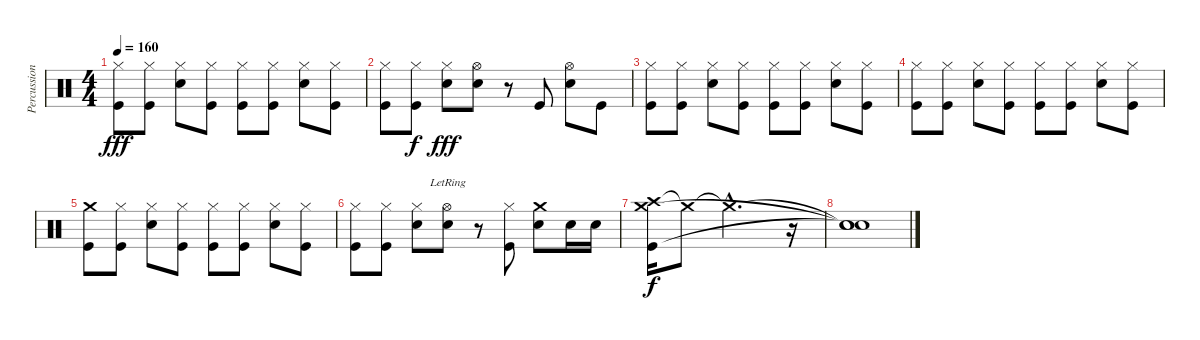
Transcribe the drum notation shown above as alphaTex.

\track ("Percussions" "Percussion") {instrument percussion}
\staff {score}
\articulation defaults
\ts (4 4)
\tempo 160
\clef neutral
\ks c
("Hi-Hat (closed)" "Kick (hit)").8{dy fff} ("Hi-Hat (closed)" "Kick (hit)").8 ("Hi-Hat (closed)" "Electric Snare (hit)").8 ("Hi-Hat (closed)" "Kick (hit)").8 ("Hi-Hat (closed)" "Kick (hit)").8 ("Hi-Hat (closed)" "Kick (hit)").8 ("Hi-Hat (closed)" "Electric Snare (hit)").8 ("Hi-Hat (closed)" "Kick (hit)").8 |
("Hi-Hat (closed)" "Kick (hit)").8 ("Hi-Hat (closed)" "Kick (hit)").8{dy f} ("Hi-Hat (closed)" "Electric Snare (hit)").8{dy fff} ("Hi-Hat (open)" "Electric Snare (hit)").8 r.8 "Kick (hit)".8 ("Hi-Hat (open)" "Electric Snare (hit)").8 "Kick (hit)".8 |
("Hi-Hat (closed)" "Kick (hit)").8 ("Hi-Hat (closed)" "Kick (hit)").8 ("Hi-Hat (closed)" "Electric Snare (hit)").8 ("Hi-Hat (closed)" "Kick (hit)").8 ("Hi-Hat (closed)" "Kick (hit)").8 ("Hi-Hat (closed)" "Kick (hit)").8 ("Hi-Hat (closed)" "Electric Snare (hit)").8 ("Hi-Hat (closed)" "Kick (hit)").8 |
("Hi-Hat (closed)" "Kick (hit)").8 ("Hi-Hat (closed)" "Kick (hit)").8 ("Hi-Hat (closed)" "Electric Snare (hit)").8 ("Hi-Hat (closed)" "Kick (hit)").8 ("Hi-Hat (closed)" "Kick (hit)").8 ("Hi-Hat (closed)" "Kick (hit)").8 ("Hi-Hat (closed)" "Electric Snare (hit)").8 ("Hi-Hat (closed)" "Kick (hit)").8 |
("Crash medium (hit)" "Kick (hit)").8 ("Hi-Hat (closed)" "Kick (hit)").8 ("Hi-Hat (closed)" "Electric Snare (hit)").8 ("Hi-Hat (closed)" "Kick (hit)").8 ("Hi-Hat (closed)" "Kick (hit)").8 ("Hi-Hat (closed)" "Kick (hit)").8 ("Hi-Hat (closed)" "Electric Snare (hit)").8 ("Hi-Hat (closed)" "Kick (hit)").8 |
("Hi-Hat (closed)" "Kick (hit)").8 ("Hi-Hat (closed)" "Kick (hit)").8 ("Hi-Hat (closed)" "Electric Snare (hit)").8 ("Hi-Hat (open)"{lr} "Electric Snare (hit)").8 r.8 ("Hi-Hat (closed)" "Kick (hit)").8 ("Crash medium (hit)" "Electric Snare (hit)").8 "Electric Snare (hit)".16 "Electric Snare (hit)".16 |
("Crash high (hit)" "Crash medium (hit)" "Kick (hit)").16{dy f} "Crash medium (hit)"{t}.8 "Crash medium (hit)"{hac t}.2{d} r.16 |
("Snare (hit)"{t} "Snare (hit)"{t} "Snare (hit)"{t}).1
